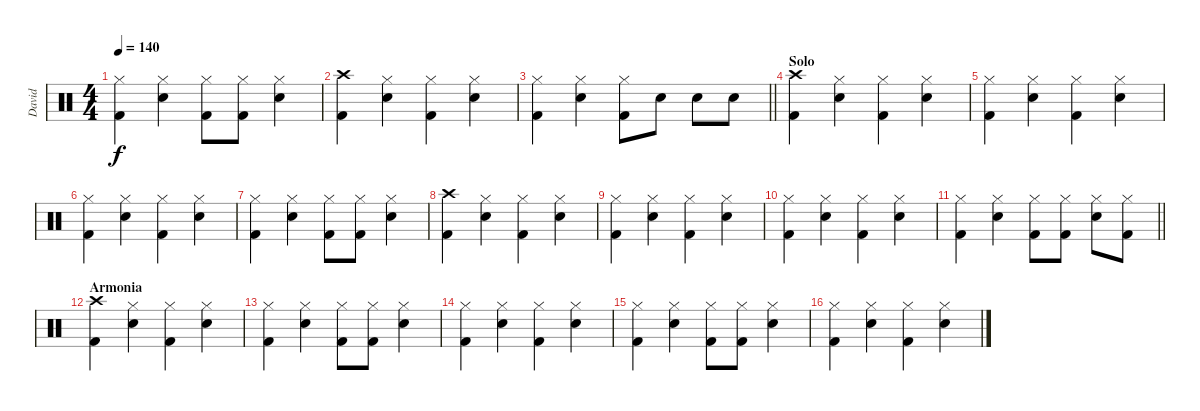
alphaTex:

\track ("David" "David") {instrument percussion}
\staff {score}
\articulation defaults
\ts (4 4)
\tempo 140
\clef neutral
\ks c
("Hi-Hat (closed)" "Kick (hit) 2").4{dy f} ("Hi-Hat (closed)" "Snare (hit) 2").4 ("Hi-Hat (closed)" "Kick (hit) 2").8 ("Hi-Hat (closed)" "Kick (hit) 2").8 ("Hi-Hat (closed)" "Snare (hit) 2").4 |
("Crash high (hit)" "Kick (hit) 2").4 ("Hi-Hat (closed)" "Snare (hit) 2").4 ("Hi-Hat (closed)" "Kick (hit) 2").4 ("Hi-Hat (closed)" "Snare (hit) 2").4 |
\barLineRight lightlight
("Hi-Hat (closed)" "Kick (hit) 2").4 ("Hi-Hat (closed)" "Snare (hit) 2").4 ("Hi-Hat (closed)" "Kick (hit) 2").8 "Snare (hit) 2".8 "Snare (hit) 2".8 "Snare (hit) 2".8 |
\section ("" "Solo")
("Crash high (hit)" "Kick (hit) 2").4 ("Hi-Hat (closed)" "Snare (hit) 2").4 ("Hi-Hat (closed)" "Kick (hit) 2").4 ("Hi-Hat (closed)" "Snare (hit) 2").4 |
("Hi-Hat (closed)" "Kick (hit) 2").4 ("Hi-Hat (closed)" "Snare (hit) 2").4 ("Hi-Hat (closed)" "Kick (hit) 2").4 ("Hi-Hat (closed)" "Snare (hit) 2").4 |
("Hi-Hat (closed)" "Kick (hit) 2").4 ("Hi-Hat (closed)" "Snare (hit) 2").4 ("Hi-Hat (closed)" "Kick (hit) 2").4 ("Hi-Hat (closed)" "Snare (hit) 2").4 |
("Hi-Hat (closed)" "Kick (hit) 2").4 ("Hi-Hat (closed)" "Snare (hit) 2").4 ("Hi-Hat (closed)" "Kick (hit) 2").8 ("Hi-Hat (closed)" "Kick (hit) 2").8 ("Hi-Hat (closed)" "Snare (hit) 2").4 |
("Crash high (hit)" "Kick (hit) 2").4 ("Hi-Hat (closed)" "Snare (hit) 2").4 ("Hi-Hat (closed)" "Kick (hit) 2").4 ("Hi-Hat (closed)" "Snare (hit) 2").4 |
("Hi-Hat (closed)" "Kick (hit) 2").4 ("Hi-Hat (closed)" "Snare (hit) 2").4 ("Hi-Hat (closed)" "Kick (hit) 2").4 ("Hi-Hat (closed)" "Snare (hit) 2").4 |
("Hi-Hat (closed)" "Kick (hit) 2").4 ("Hi-Hat (closed)" "Snare (hit) 2").4 ("Hi-Hat (closed)" "Kick (hit) 2").4 ("Hi-Hat (closed)" "Snare (hit) 2").4 |
\barLineRight lightlight
("Hi-Hat (closed)" "Kick (hit) 2").4 ("Hi-Hat (closed)" "Snare (hit) 2").4 ("Hi-Hat (closed)" "Kick (hit) 2").8 ("Hi-Hat (closed)" "Kick (hit) 2").8 ("Hi-Hat (closed)" "Snare (hit) 2").8 ("Hi-Hat (closed)" "Kick (hit) 2").8 |
\section ("" "Armonia")
("Crash high (hit)" "Kick (hit) 2").4 ("Hi-Hat (closed)" "Snare (hit) 2").4 ("Hi-Hat (closed)" "Kick (hit) 2").4 ("Hi-Hat (closed)" "Snare (hit) 2").4 |
("Hi-Hat (closed)" "Kick (hit) 2").4 ("Hi-Hat (closed)" "Snare (hit) 2").4 ("Hi-Hat (closed)" "Kick (hit) 2").8 ("Hi-Hat (closed)" "Kick (hit) 2").8 ("Hi-Hat (closed)" "Snare (hit) 2").4 |
("Hi-Hat (closed)" "Kick (hit) 2").4 ("Hi-Hat (closed)" "Snare (hit) 2").4 ("Hi-Hat (closed)" "Kick (hit) 2").4 ("Hi-Hat (closed)" "Snare (hit) 2").4 |
("Hi-Hat (closed)" "Kick (hit) 2").4 ("Hi-Hat (closed)" "Snare (hit) 2").4 ("Hi-Hat (closed)" "Kick (hit) 2").8 ("Hi-Hat (closed)" "Kick (hit) 2").8 ("Hi-Hat (closed)" "Snare (hit) 2").4 |
("Hi-Hat (closed)" "Kick (hit) 2").4 ("Hi-Hat (closed)" "Snare (hit) 2").4 ("Hi-Hat (closed)" "Kick (hit) 2").4 ("Hi-Hat (closed)" "Snare (hit) 2").4
